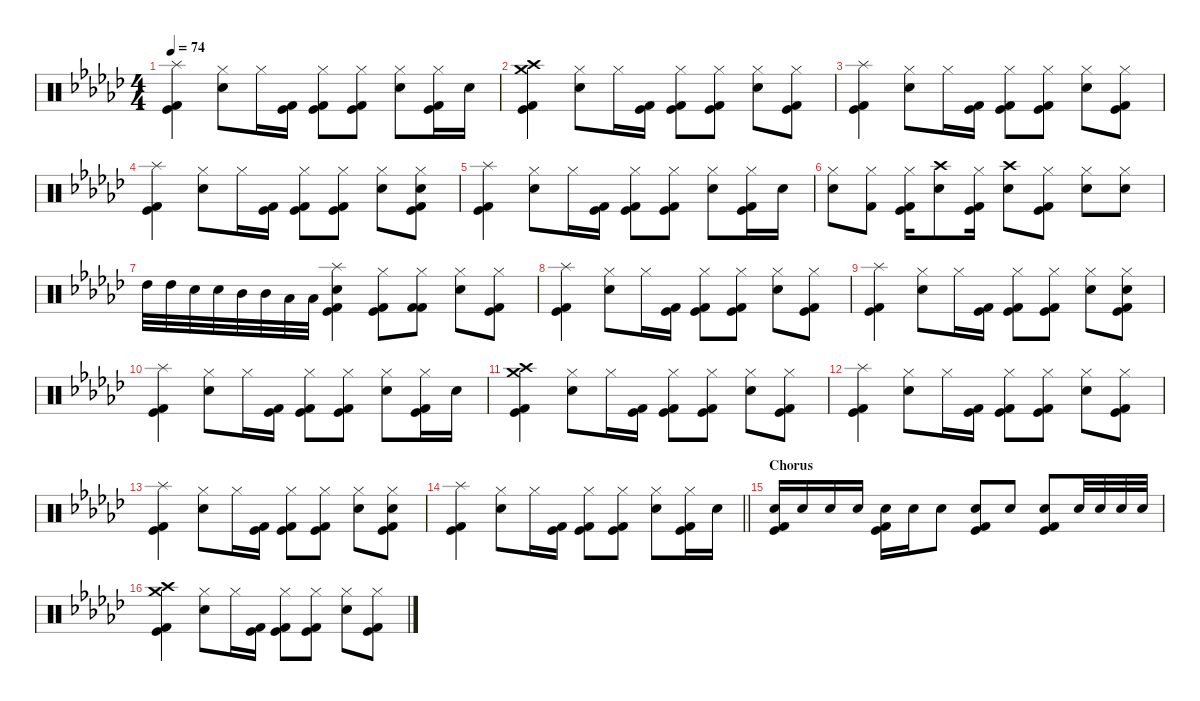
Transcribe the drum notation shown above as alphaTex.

\defaultSystemsLayout 4
\hideDynamics
\bracketExtendMode nobrackets
\singleTrackTrackNamePolicy hidden
\multiTrackTrackNamePolicy hidden
\firstSystemTrackNameMode fullname
\firstSystemTrackNameOrientation horizontal
\otherSystemsTrackNameOrientation horizontal
\track ("Drums, Ulrich" "drm.") {defaultSystemsLayout 4 instrument percussion}
\staff {score}
\articulation defaults
\ts (4 4)
\tempo 74
\clef neutral
\ks ebminor
("Splash (hit)"{acc forcenatural} "Kick (hit) 2"{acc forcenatural} "Kick (hit)"{acc forcenatural}).4{dy f beam Down} ("Hi-Hat (closed)"{acc forcenatural} "Snare (hit) 2"{acc forcenatural}).8{beam Down} "Hi-Hat (closed)"{acc forcenatural}.16{beam Down} ("Kick (hit) 2"{acc forcenatural} "Kick (hit)"{acc forcenatural}).16{beam Down} ("Hi-Hat (closed)"{acc forcenatural} "Kick (hit) 2"{acc forcenatural} "Kick (hit)"{acc forcenatural}).8{beam Down} ("Hi-Hat (closed)"{acc forcenatural} "Kick (hit)"{acc forcenatural} "Kick (hit) 2"{acc forcenatural}).8{beam Down} ("Hi-Hat (closed)"{acc forcenatural} "Snare (hit) 2"{acc forcenatural}).8{beam Down} ("Hi-Hat (closed)"{acc forcenatural} "Kick (hit) 2"{acc forcenatural} "Kick (hit)"{acc forcenatural}).16{beam Down} "Snare (hit) 2"{acc forcenatural}.16{beam Down} |
("Crash medium (hit)"{acc forcenatural} "Crash high (hit)"{acc forcenatural} "Kick (hit) 2"{acc forcenatural} "Kick (hit)"{acc forcenatural}).4{beam Down} ("Hi-Hat (closed)"{acc forcenatural} "Snare (hit) 2"{acc forcenatural}).8{beam Down} "Hi-Hat (closed)"{acc forcenatural}.16{beam Down} ("Kick (hit) 2"{acc forcenatural} "Kick (hit)"{acc forcenatural}).16{beam Down} ("Hi-Hat (closed)"{acc forcenatural} "Kick (hit) 2"{acc forcenatural} "Kick (hit)"{acc forcenatural}).8{beam Down} ("Hi-Hat (closed)"{acc forcenatural} "Kick (hit)"{acc forcenatural} "Kick (hit) 2"{acc forcenatural}).8{beam Down} ("Hi-Hat (closed)"{acc forcenatural} "Snare (hit) 2"{acc forcenatural}).8{beam Down} ("Hi-Hat (closed)"{acc forcenatural} "Kick (hit) 2"{acc forcenatural} "Kick (hit)"{acc forcenatural}).8{beam Down} |
("Splash (hit)"{acc forcenatural} "Kick (hit) 2"{acc forcenatural} "Kick (hit)"{acc forcenatural}).4{beam Down} ("Hi-Hat (closed)"{acc forcenatural} "Snare (hit) 2"{acc forcenatural}).8{beam Down} "Hi-Hat (closed)"{acc forcenatural}.16{beam Down} ("Kick (hit) 2"{acc forcenatural} "Kick (hit)"{acc forcenatural}).16{beam Down} ("Hi-Hat (closed)"{acc forcenatural} "Kick (hit) 2"{acc forcenatural} "Kick (hit)"{acc forcenatural}).8{beam Down} ("Hi-Hat (closed)"{acc forcenatural} "Kick (hit)"{acc forcenatural} "Kick (hit) 2"{acc forcenatural}).8{beam Down} ("Hi-Hat (closed)"{acc forcenatural} "Snare (hit) 2"{acc forcenatural}).8{beam Down} ("Hi-Hat (closed)"{acc forcenatural} "Kick (hit) 2"{acc forcenatural} "Kick (hit)"{acc forcenatural}).8{beam Down} |
("Splash (hit)"{acc forcenatural} "Kick (hit) 2"{acc forcenatural} "Kick (hit)"{acc forcenatural}).4{beam Down} ("Hi-Hat (closed)"{acc forcenatural} "Snare (hit) 2"{acc forcenatural}).8{beam Down} "Hi-Hat (closed)"{acc forcenatural}.16{beam Down} ("Kick (hit) 2"{acc forcenatural} "Kick (hit)"{acc forcenatural}).16{beam Down} ("Hi-Hat (closed)"{acc forcenatural} "Kick (hit) 2"{acc forcenatural} "Kick (hit)"{acc forcenatural}).8{beam Down} ("Hi-Hat (closed)"{acc forcenatural} "Kick (hit)"{acc forcenatural} "Kick (hit) 2"{acc forcenatural}).8{beam Down} ("Hi-Hat (closed)"{acc forcenatural} "Snare (hit) 2"{acc forcenatural}).8{beam Down} ("Hi-Hat (closed)"{acc forcenatural} "Snare (hit) 2"{acc forcenatural} "Kick (hit) 2"{acc forcenatural} "Kick (hit)"{acc forcenatural}).8{beam Down} |
("Splash (hit)"{acc forcenatural} "Kick (hit) 2"{acc forcenatural} "Kick (hit)"{acc forcenatural}).4{beam Down} ("Hi-Hat (closed)"{acc forcenatural} "Snare (hit) 2"{acc forcenatural}).8{beam Down} "Hi-Hat (closed)"{acc forcenatural}.16{beam Down} ("Kick (hit) 2"{acc forcenatural} "Kick (hit)"{acc forcenatural}).16{beam Down} ("Hi-Hat (closed)"{acc forcenatural} "Kick (hit) 2"{acc forcenatural} "Kick (hit)"{acc forcenatural}).8{beam Down} ("Hi-Hat (closed)"{acc forcenatural} "Kick (hit)"{acc forcenatural} "Kick (hit) 2"{acc forcenatural}).8{beam Down} ("Hi-Hat (closed)"{acc forcenatural} "Snare (hit) 2"{acc forcenatural}).8{beam Down} ("Hi-Hat (closed)"{acc forcenatural} "Kick (hit) 2"{acc forcenatural} "Kick (hit)"{acc forcenatural}).16{beam Down} "Snare (hit) 2"{acc forcenatural}.16{beam Down} |
("Hi-Hat (closed)"{acc forcenatural} "Snare (hit) 2"{acc forcenatural}).8{beam Down} ("Hi-Hat (closed)"{acc forcenatural} "Kick (hit) 2"{acc forcenatural}).8{beam Down} ("Hi-Hat (closed)"{acc forcenatural} "Kick (hit) 2"{acc forcenatural} "Kick (hit)"{acc forcenatural}).16{beam Down} ("Crash high (hit)"{acc forcenatural} "Snare (hit) 2"{acc forcenatural}).8{beam Down} ("Hi-Hat (closed)"{acc forcenatural} "Kick (hit) 2"{acc forcenatural} "Kick (hit)"{acc forcenatural}).16{beam Down} ("Crash high (hit)"{acc forcenatural} "Snare (hit) 2"{acc forcenatural}).8{beam Down} ("Hi-Hat (closed)"{acc forcenatural} "Kick (hit) 2"{acc forcenatural} "Kick (hit)"{acc forcenatural}).8{beam Down} ("Hi-Hat (closed)"{acc forcenatural} "Snare (hit) 2"{acc forcenatural}).8{beam Down} ("Hi-Hat (closed)"{acc forcenatural} "Snare (hit) 2"{acc forcenatural}).8{beam Down} |
"High Tom (hit)"{acc forcenatural}.32{beam Down} "High Tom (hit)"{acc forcenatural}.32{beam Down} "Snare (hit) 2"{acc forcenatural}.32{beam Down} "Snare (hit) 2"{acc forcenatural}.32{beam Down} "Mid Tom (hit)"{acc forcenatural}.32{beam Down} "Mid Tom (hit)"{acc forcenatural}.32{beam Down} "Low Floor Tom (hit)"{acc forcenatural}.32{beam Down} "Low Floor Tom (hit)"{acc forcenatural}.32{beam Down} ("Splash (hit)"{acc forcenatural} "Snare (hit) 2"{acc forcenatural} "Kick (hit) 2"{acc forcenatural} "Kick (hit)"{acc forcenatural}).4{beam Down} ("Hi-Hat (closed)"{acc forcenatural} "Kick (hit) 2"{acc forcenatural} "Kick (hit)"{acc forcenatural}).8{beam Down} ("Hi-Hat (closed)"{acc forcenatural} "Kick (hit) 2"{acc forcenatural} "Kick (hit) 2"{acc forcenatural}).8{beam Down} ("Hi-Hat (closed)"{acc forcenatural} "Snare (hit) 2"{acc forcenatural}).8{beam Down} ("Hi-Hat (closed)"{acc forcenatural} "Kick (hit) 2"{acc forcenatural} "Kick (hit)"{acc forcenatural}).8{beam Down} |
("Splash (hit)"{acc forcenatural} "Kick (hit) 2"{acc forcenatural} "Kick (hit)"{acc forcenatural}).4{beam Down} ("Hi-Hat (closed)"{acc forcenatural} "Snare (hit) 2"{acc forcenatural}).8{beam Down} "Hi-Hat (closed)"{acc forcenatural}.16{beam Down} ("Kick (hit) 2"{acc forcenatural} "Kick (hit)"{acc forcenatural}).16{beam Down} ("Hi-Hat (closed)"{acc forcenatural} "Kick (hit) 2"{acc forcenatural} "Kick (hit)"{acc forcenatural}).8{beam Down} ("Hi-Hat (closed)"{acc forcenatural} "Kick (hit)"{acc forcenatural} "Kick (hit) 2"{acc forcenatural}).8{beam Down} ("Hi-Hat (closed)"{acc forcenatural} "Snare (hit) 2"{acc forcenatural}).8{beam Down} ("Hi-Hat (closed)"{acc forcenatural} "Kick (hit) 2"{acc forcenatural} "Kick (hit)"{acc forcenatural}).8{beam Down} |
("Splash (hit)"{acc forcenatural} "Kick (hit) 2"{acc forcenatural} "Kick (hit)"{acc forcenatural}).4{beam Down} ("Hi-Hat (closed)"{acc forcenatural} "Snare (hit) 2"{acc forcenatural}).8{beam Down} "Hi-Hat (closed)"{acc forcenatural}.16{beam Down} ("Kick (hit) 2"{acc forcenatural} "Kick (hit)"{acc forcenatural}).16{beam Down} ("Hi-Hat (closed)"{acc forcenatural} "Kick (hit) 2"{acc forcenatural} "Kick (hit)"{acc forcenatural}).8{beam Down} ("Hi-Hat (closed)"{acc forcenatural} "Kick (hit)"{acc forcenatural} "Kick (hit) 2"{acc forcenatural}).8{beam Down} ("Hi-Hat (closed)"{acc forcenatural} "Snare (hit) 2"{acc forcenatural}).8{beam Down} ("Hi-Hat (closed)"{acc forcenatural} "Snare (hit) 2"{acc forcenatural} "Kick (hit) 2"{acc forcenatural} "Kick (hit)"{acc forcenatural}).8{beam Down} |
("Splash (hit)"{acc forcenatural} "Kick (hit) 2"{acc forcenatural} "Kick (hit)"{acc forcenatural}).4{beam Down} ("Hi-Hat (closed)"{acc forcenatural} "Snare (hit) 2"{acc forcenatural}).8{beam Down} "Hi-Hat (closed)"{acc forcenatural}.16{beam Down} ("Kick (hit) 2"{acc forcenatural} "Kick (hit)"{acc forcenatural}).16{beam Down} ("Hi-Hat (closed)"{acc forcenatural} "Kick (hit) 2"{acc forcenatural} "Kick (hit)"{acc forcenatural}).8{beam Down} ("Hi-Hat (closed)"{acc forcenatural} "Kick (hit)"{acc forcenatural} "Kick (hit) 2"{acc forcenatural}).8{beam Down} ("Hi-Hat (closed)"{acc forcenatural} "Snare (hit) 2"{acc forcenatural}).8{beam Down} ("Hi-Hat (closed)"{acc forcenatural} "Kick (hit) 2"{acc forcenatural} "Kick (hit)"{acc forcenatural}).16{beam Down} "Snare (hit) 2"{acc forcenatural}.16{beam Down} |
("Crash medium (hit)"{acc forcenatural} "Crash high (hit)"{acc forcenatural} "Kick (hit) 2"{acc forcenatural} "Kick (hit)"{acc forcenatural}).4{beam Down} ("Hi-Hat (closed)"{acc forcenatural} "Snare (hit) 2"{acc forcenatural}).8{beam Down} "Hi-Hat (closed)"{acc forcenatural}.16{beam Down} ("Kick (hit) 2"{acc forcenatural} "Kick (hit)"{acc forcenatural}).16{beam Down} ("Hi-Hat (closed)"{acc forcenatural} "Kick (hit) 2"{acc forcenatural} "Kick (hit)"{acc forcenatural}).8{beam Down} ("Hi-Hat (closed)"{acc forcenatural} "Kick (hit)"{acc forcenatural} "Kick (hit) 2"{acc forcenatural}).8{beam Down} ("Hi-Hat (closed)"{acc forcenatural} "Snare (hit) 2"{acc forcenatural}).8{beam Down} ("Hi-Hat (closed)"{acc forcenatural} "Kick (hit) 2"{acc forcenatural} "Kick (hit)"{acc forcenatural}).8{beam Down} |
("Splash (hit)"{acc forcenatural} "Kick (hit) 2"{acc forcenatural} "Kick (hit)"{acc forcenatural}).4{beam Down} ("Hi-Hat (closed)"{acc forcenatural} "Snare (hit) 2"{acc forcenatural}).8{beam Down} "Hi-Hat (closed)"{acc forcenatural}.16{beam Down} ("Kick (hit) 2"{acc forcenatural} "Kick (hit)"{acc forcenatural}).16{beam Down} ("Hi-Hat (closed)"{acc forcenatural} "Kick (hit) 2"{acc forcenatural} "Kick (hit)"{acc forcenatural}).8{beam Down} ("Hi-Hat (closed)"{acc forcenatural} "Kick (hit)"{acc forcenatural} "Kick (hit) 2"{acc forcenatural}).8{beam Down} ("Hi-Hat (closed)"{acc forcenatural} "Snare (hit) 2"{acc forcenatural}).8{beam Down} ("Hi-Hat (closed)"{acc forcenatural} "Kick (hit) 2"{acc forcenatural} "Kick (hit)"{acc forcenatural}).8{beam Down} |
("Splash (hit)"{acc forcenatural} "Kick (hit) 2"{acc forcenatural} "Kick (hit)"{acc forcenatural}).4{beam Down} ("Hi-Hat (closed)"{acc forcenatural} "Snare (hit) 2"{acc forcenatural}).8{beam Down} "Hi-Hat (closed)"{acc forcenatural}.16{beam Down} ("Kick (hit) 2"{acc forcenatural} "Kick (hit)"{acc forcenatural}).16{beam Down} ("Hi-Hat (closed)"{acc forcenatural} "Kick (hit) 2"{acc forcenatural} "Kick (hit)"{acc forcenatural}).8{beam Down} ("Hi-Hat (closed)"{acc forcenatural} "Kick (hit)"{acc forcenatural} "Kick (hit) 2"{acc forcenatural}).8{beam Down} ("Hi-Hat (closed)"{acc forcenatural} "Snare (hit) 2"{acc forcenatural}).8{beam Down} ("Hi-Hat (closed)"{acc forcenatural} "Snare (hit) 2"{acc forcenatural} "Kick (hit) 2"{acc forcenatural} "Kick (hit)"{acc forcenatural}).8{beam Down} |
\barLineRight lightlight
("Splash (hit)"{acc forcenatural} "Kick (hit) 2"{acc forcenatural} "Kick (hit)"{acc forcenatural}).4{beam Down} ("Hi-Hat (closed)"{acc forcenatural} "Snare (hit) 2"{acc forcenatural}).8{beam Down} "Hi-Hat (closed)"{acc forcenatural}.16{beam Down} ("Kick (hit) 2"{acc forcenatural} "Kick (hit)"{acc forcenatural}).16{beam Down} ("Hi-Hat (closed)"{acc forcenatural} "Kick (hit) 2"{acc forcenatural} "Kick (hit)"{acc forcenatural}).8{beam Down} ("Hi-Hat (closed)"{acc forcenatural} "Kick (hit)"{acc forcenatural} "Kick (hit) 2"{acc forcenatural}).8{beam Down} ("Hi-Hat (closed)"{acc forcenatural} "Snare (hit) 2"{acc forcenatural}).8{beam Down} ("Hi-Hat (closed)"{acc forcenatural} "Kick (hit) 2"{acc forcenatural} "Kick (hit)"{acc forcenatural}).16{beam Down} "Snare (hit) 2"{acc forcenatural}.16{beam Down} |
\section ("" "Chorus")
("Snare (hit) 2"{acc forcenatural} "Kick (hit) 2"{acc forcenatural} "Kick (hit)"{acc forcenatural}).16{beam Up} "Snare (hit) 2"{acc forcenatural}.16{beam Up} "Snare (hit) 2"{acc forcenatural}.16{beam Up} "Snare (hit) 2"{acc forcenatural}.16{beam Up} ("Snare (hit) 2"{acc forcenatural} "Kick (hit) 2"{acc forcenatural} "Kick (hit)"{acc forcenatural}).16{beam Down} "Snare (hit) 2"{acc forcenatural}.16{beam Down} "Snare (hit) 2"{acc forcenatural}.8{beam Down} ("Snare (hit) 2"{acc forcenatural} "Kick (hit) 2"{acc forcenatural} "Kick (hit)"{acc forcenatural}).8{beam Up} "Snare (hit) 2"{acc forcenatural}.8{beam Up} ("Snare (hit) 2"{acc forcenatural} "Kick (hit) 2"{acc forcenatural} "Kick (hit)"{acc forcenatural}).8{beam Up} "Snare (hit) 2"{acc forcenatural}.32{beam Up} "Snare (hit) 2"{acc forcenatural}.32{beam Up} "Snare (hit) 2"{acc forcenatural}.32{beam Up} "Snare (hit) 2"{acc forcenatural}.32{beam Up} |
("Crash medium (hit)"{acc forcenatural} "Crash high (hit)"{acc forcenatural} "Kick (hit) 2"{acc forcenatural} "Kick (hit)"{acc forcenatural}).4{beam Down} ("Hi-Hat (closed)"{acc forcenatural} "Snare (hit) 2"{acc forcenatural}).8{beam Down} "Hi-Hat (closed)"{acc forcenatural}.16{beam Down} ("Kick (hit) 2"{acc forcenatural} "Kick (hit)"{acc forcenatural}).16{beam Down} ("Hi-Hat (closed)"{acc forcenatural} "Kick (hit) 2"{acc forcenatural} "Kick (hit)"{acc forcenatural}).8{beam Down} ("Hi-Hat (closed)"{acc forcenatural} "Kick (hit)"{acc forcenatural} "Kick (hit) 2"{acc forcenatural}).8{beam Down} ("Hi-Hat (closed)"{acc forcenatural} "Snare (hit) 2"{acc forcenatural}).8{beam Down} ("Hi-Hat (closed)"{acc forcenatural} "Kick (hit) 2"{acc forcenatural} "Kick (hit)"{acc forcenatural}).8{beam Down}
